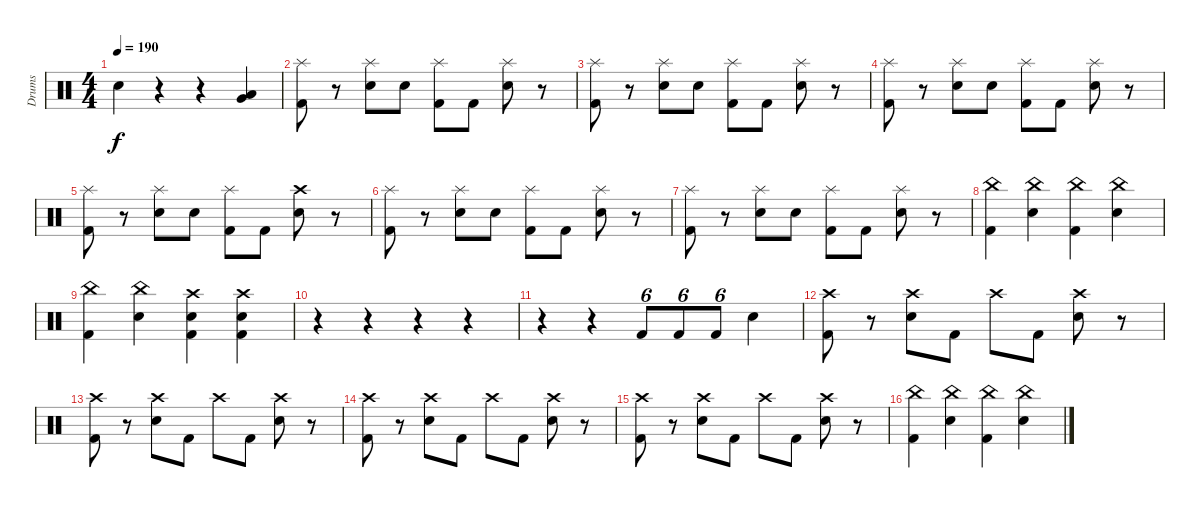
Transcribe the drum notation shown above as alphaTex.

\track ("Drums" "Drums") {instrument percussion}
\staff {score}
\articulation defaults
\ts (4 4)
\tempo 190
\clef neutral
\ks c "Snare (hit) 2".4{dy f}
r.4 r.4 ("Low Floor Tom (hit)" "Very Low Tom (hit)").4 |
("Splash (hit)" "Kick (hit) 2").8 r.8 ("Splash (hit)" "Snare (hit) 2").8 "Snare (hit) 2".8 ("Splash (hit)" "Kick (hit) 2").8 "Kick (hit) 2".8 ("Splash (hit)" "Snare (hit) 2").8 r.8 |
("Splash (hit)" "Kick (hit) 2").8 r.8 ("Splash (hit)" "Snare (hit) 2").8 "Snare (hit) 2".8 ("Splash (hit)" "Kick (hit) 2").8 "Kick (hit) 2".8 ("Splash (hit)" "Snare (hit) 2").8 r.8 |
("Splash (hit)" "Kick (hit) 2").8 r.8 ("Splash (hit)" "Snare (hit) 2").8 "Snare (hit) 2".8 ("Splash (hit)" "Kick (hit) 2").8 "Kick (hit) 2".8 ("Splash (hit)" "Snare (hit) 2").8 r.8 |
("Splash (hit)" "Kick (hit) 2").8 r.8 ("Splash (hit)" "Snare (hit) 2").8 "Snare (hit) 2".8 ("Splash (hit)" "Kick (hit) 2").8 "Kick (hit) 2".8 ("Crash high (hit)" "Snare (hit) 2").8 r.8 |
("Splash (hit)" "Kick (hit) 2").8 r.8 ("Splash (hit)" "Snare (hit) 2").8 "Snare (hit) 2".8 ("Splash (hit)" "Kick (hit) 2").8 "Kick (hit) 2".8 ("Splash (hit)" "Snare (hit) 2").8 r.8 |
("Splash (hit)" "Kick (hit) 2").8 r.8 ("Splash (hit)" "Snare (hit) 2").8 "Snare (hit) 2".8 ("Splash (hit)" "Kick (hit) 2").8 "Kick (hit) 2".8 ("Splash (hit)" "Snare (hit) 2").8 r.8 |
("China (hit)" "Kick (hit) 2").4 ("China (hit)" "Snare (hit) 2").4 ("China (hit)" "Kick (hit) 2").4 ("China (hit)" "Snare (hit) 2").4 |
("China (hit)" "Kick (hit) 2").4 ("China (hit)" "Snare (hit) 2").4 ("Crash high (hit)" "Snare (hit) 2" "Kick (hit) 2").4 ("Crash high (hit)" "Snare (hit) 2" "Kick (hit) 2").4 |
r.4 r.4 r.4 r.4 |
r.4 r.4 "Kick (hit) 2".8{tu (6 4)} "Kick (hit) 2".8{tu (6 4)} "Kick (hit) 2".8{tu (6 4)} "Snare (hit) 2".4 |
("Crash high (hit)" "Kick (hit) 2").8 r.8 ("Crash high (hit)" "Snare (hit) 2").8 "Kick (hit) 2".8 "Crash high (hit)".8 "Kick (hit) 2".8 ("Crash high (hit)" "Snare (hit) 2").8 r.8 |
("Crash high (hit)" "Kick (hit) 2").8 r.8 ("Crash high (hit)" "Snare (hit) 2").8 "Kick (hit) 2".8 "Crash high (hit)".8 "Kick (hit) 2".8 ("Crash high (hit)" "Snare (hit) 2").8 r.8 |
("Crash high (hit)" "Kick (hit) 2").8 r.8 ("Crash high (hit)" "Snare (hit) 2").8 "Kick (hit) 2".8 "Crash high (hit)".8 "Kick (hit) 2".8 ("Crash high (hit)" "Snare (hit) 2").8 r.8 |
("Crash high (hit)" "Kick (hit) 2").8 r.8 ("Crash high (hit)" "Snare (hit) 2").8 "Kick (hit) 2".8 "Crash high (hit)".8 "Kick (hit) 2".8 ("Crash high (hit)" "Snare (hit) 2").8 r.8 |
("China (hit)" "Kick (hit) 2").4 ("China (hit)" "Snare (hit) 2").4 ("China (hit)" "Kick (hit) 2").4 ("China (hit)" "Snare (hit) 2").4
